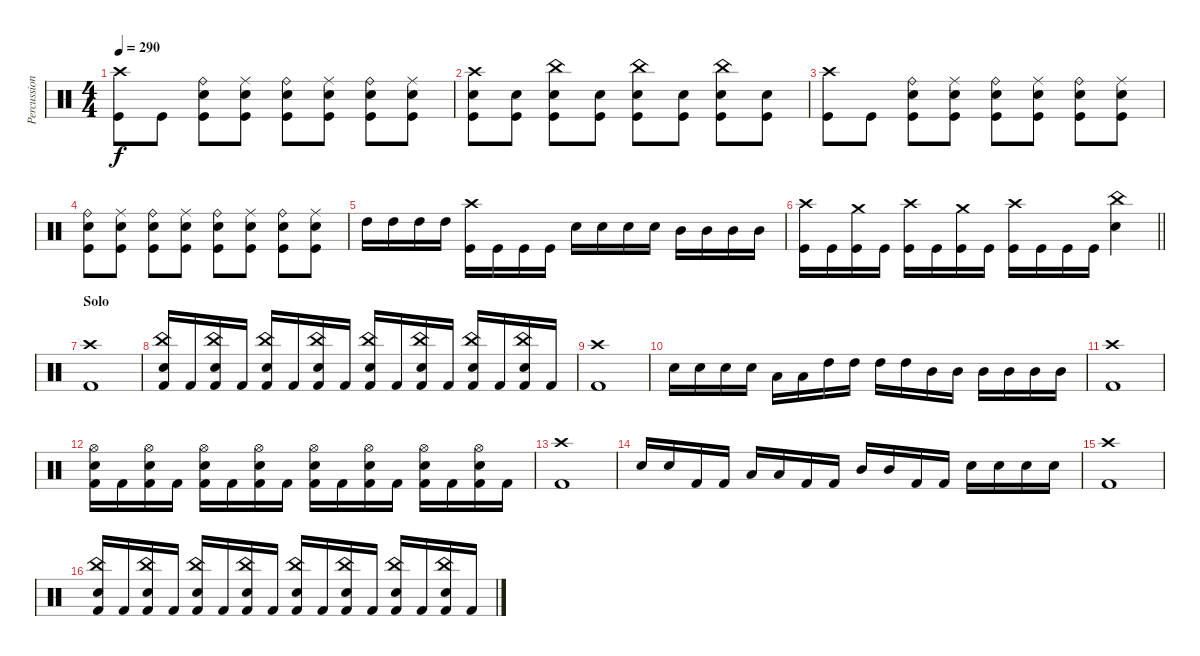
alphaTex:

\track ("Percussion" "Percussion") {instrument percussion}
\staff {score}
\articulation defaults
\ts (4 4)
\tempo 290
\clef neutral
\ks c
("Crash high (hit)" "Kick (hit)").8{dy f} "Kick (hit)".8 ("Electric Snare (hit)" "Ride (bell)" "Kick (hit)").8 ("Electric Snare (hit)" "Ride (middle)" "Kick (hit)").8 ("Electric Snare (hit)" "Ride (bell)" "Kick (hit)").8 ("Electric Snare (hit)" "Ride (middle)" "Kick (hit)").8 ("Electric Snare (hit)" "Ride (bell)" "Kick (hit)").8 ("Electric Snare (hit)" "Ride (middle)" "Kick (hit)").8 |
("Electric Snare (hit)" "Crash high (hit)" "Kick (hit)").8 ("Electric Snare (hit)" "Kick (hit)").8 ("Electric Snare (hit)" "China (hit)" "Kick (hit)").8 ("Electric Snare (hit)" "Kick (hit)").8 ("Electric Snare (hit)" "China (hit)" "Kick (hit)").8 ("Electric Snare (hit)" "Kick (hit)").8 ("Electric Snare (hit)" "China (hit)" "Kick (hit)").8 ("Electric Snare (hit)" "Kick (hit)").8 |
("Crash high (hit)" "Kick (hit)").8 "Kick (hit)".8 ("Electric Snare (hit)" "Ride (bell)" "Kick (hit)").8 ("Electric Snare (hit)" "Ride (middle)" "Kick (hit)").8 ("Electric Snare (hit)" "Ride (bell)" "Kick (hit)").8 ("Electric Snare (hit)" "Ride (middle)" "Kick (hit)").8 ("Electric Snare (hit)" "Ride (bell)" "Kick (hit)").8 ("Electric Snare (hit)" "Ride (middle)" "Kick (hit)").8 |
("Electric Snare (hit)" "Ride (bell)" "Kick (hit)").8 ("Electric Snare (hit)" "Ride (middle)" "Kick (hit)").8 ("Electric Snare (hit)" "Ride (bell)" "Kick (hit)").8 ("Electric Snare (hit)" "Ride (middle)" "Kick (hit)").8 ("Electric Snare (hit)" "Ride (bell)" "Kick (hit)").8 ("Electric Snare (hit)" "Ride (middle)" "Kick (hit)").8 ("Electric Snare (hit)" "Ride (bell)" "Kick (hit)").8 ("Electric Snare (hit)" "Ride (middle)" "Kick (hit)").8 |
"High Tom (hit)".16 "High Tom (hit)".16 "High Tom (hit)".16 "High Tom (hit)".16 ("Crash high (hit)" "Kick (hit)").16 "Kick (hit)".16 "Kick (hit)".16 "Kick (hit)".16 "Electric Snare (hit)".16 "Electric Snare (hit)".16 "Electric Snare (hit)".16 "Electric Snare (hit)".16 "Mid Tom (hit)".16 "Mid Tom (hit)".16 "Mid Tom (hit)".16 "Mid Tom (hit)".16 |
\barLineRight lightlight
("Crash high (hit)" "Kick (hit)").16 "Kick (hit)".16 ("Kick (hit)" "Crash medium (hit)").16 "Kick (hit)".16 ("Kick (hit)" "Crash high (hit)").16 "Kick (hit)".16 ("Kick (hit)" "Crash medium (hit)").16 "Kick (hit)".16 ("Kick (hit)" "Crash high (hit)").16 "Kick (hit)".16 "Kick (hit)".16 "Kick (hit)".16 ("China (hit)" "Electric Snare (hit)").4 |
\section ("" "Solo")
("Crash high (hit)" "Kick (hit) 2").1 |
("China (hit)" "Electric Snare (hit)" "Kick (hit) 2").16 "Kick (hit) 2".16 ("China (hit)" "Electric Snare (hit)" "Kick (hit) 2").16 "Kick (hit) 2".16 ("China (hit)" "Electric Snare (hit)" "Kick (hit) 2").16 "Kick (hit) 2".16 ("China (hit)" "Electric Snare (hit)" "Kick (hit) 2").16 "Kick (hit) 2".16 ("China (hit)" "Electric Snare (hit)" "Kick (hit) 2").16 "Kick (hit) 2".16 ("China (hit)" "Electric Snare (hit)" "Kick (hit) 2").16 "Kick (hit) 2".16 ("China (hit)" "Electric Snare (hit)" "Kick (hit) 2").16 "Kick (hit) 2".16 ("China (hit)" "Electric Snare (hit)" "Kick (hit) 2").16 "Kick (hit) 2".16 |
("Crash high (hit)" "Kick (hit) 2").1 |
"Electric Snare (hit)".16 "Electric Snare (hit)".16 "Electric Snare (hit)".16 "Electric Snare (hit)".16 "Low Tom (hit)".16 "Low Tom (hit)".16 "High Tom (hit)".16 "High Tom (hit)".16 "High Tom (hit)".16 "High Tom (hit)".16 "Mid Tom (hit)".16 "Mid Tom (hit)".16 "Mid Tom (hit)".16 "Mid Tom (hit)".16 "Mid Tom (hit)".16 "Mid Tom (hit)".16 |
("Crash high (hit)" "Kick (hit) 2").1 |
("Hi-Hat (open)" "Electric Snare (hit)" "Kick (hit) 2").16 "Kick (hit) 2".16 ("Hi-Hat (open)" "Electric Snare (hit)" "Kick (hit) 2").16 "Kick (hit) 2".16 ("Hi-Hat (open)" "Electric Snare (hit)" "Kick (hit) 2").16 "Kick (hit) 2".16 ("Hi-Hat (open)" "Electric Snare (hit)" "Kick (hit) 2").16 "Kick (hit) 2".16 ("Hi-Hat (open)" "Electric Snare (hit)" "Kick (hit) 2").16 "Kick (hit) 2".16 ("Hi-Hat (open)" "Electric Snare (hit)" "Kick (hit) 2").16 "Kick (hit) 2".16 ("Hi-Hat (open)" "Electric Snare (hit)" "Kick (hit) 2").16 "Kick (hit) 2".16 ("Hi-Hat (open)" "Electric Snare (hit)" "Kick (hit) 2").16 "Kick (hit) 2".16 |
("Crash high (hit)" "Kick (hit) 2").1 |
"Electric Snare (hit)".16 "Electric Snare (hit)".16 "Kick (hit) 2".16 "Kick (hit) 2".16 "Low Tom (hit)".16 "Low Tom (hit)".16 "Kick (hit) 2".16 "Kick (hit) 2".16 "Mid Tom (hit)".16 "Mid Tom (hit)".16 "Kick (hit) 2".16 "Kick (hit) 2".16 "Electric Snare (hit)".16 "Electric Snare (hit)".16 "Electric Snare (hit)".16 "Electric Snare (hit)".16 |
("Crash high (hit)" "Kick (hit) 2").1 |
("China (hit)" "Electric Snare (hit)" "Kick (hit) 2").16 "Kick (hit) 2".16 ("China (hit)" "Electric Snare (hit)" "Kick (hit) 2").16 "Kick (hit) 2".16 ("China (hit)" "Electric Snare (hit)" "Kick (hit) 2").16 "Kick (hit) 2".16 ("China (hit)" "Electric Snare (hit)" "Kick (hit) 2").16 "Kick (hit) 2".16 ("China (hit)" "Electric Snare (hit)" "Kick (hit) 2").16 "Kick (hit) 2".16 ("China (hit)" "Electric Snare (hit)" "Kick (hit) 2").16 "Kick (hit) 2".16 ("China (hit)" "Electric Snare (hit)" "Kick (hit) 2").16 "Kick (hit) 2".16 ("China (hit)" "Electric Snare (hit)" "Kick (hit) 2").16 "Kick (hit) 2".16
